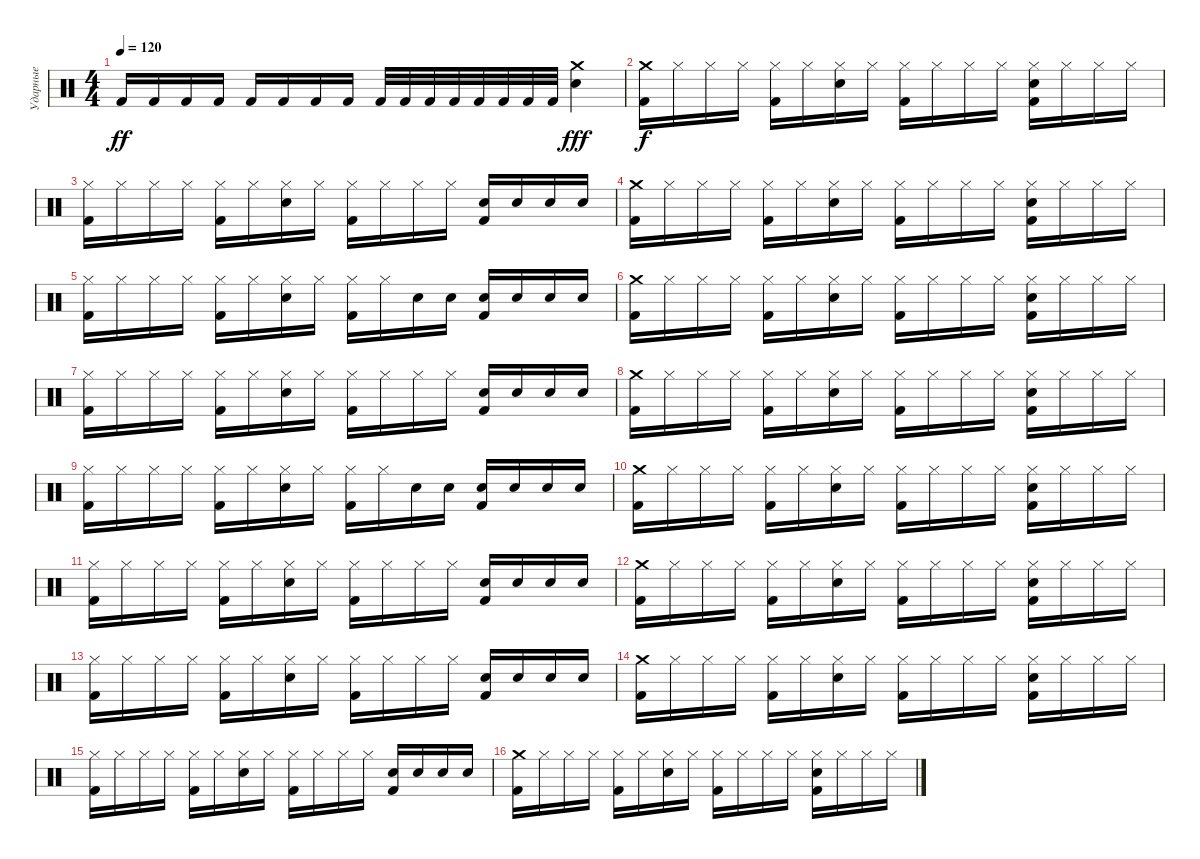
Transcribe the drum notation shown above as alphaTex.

\track ("Ударные" "Ударные") {instrument percussion}
\staff {score}
\articulation defaults
\ts (4 4)
\tempo 120
\clef neutral
\ks c "Kick (hit) 2".16{dy ff} "Kick (hit) 2".16 "Kick (hit) 2".16 "Kick (hit) 2".16 "Kick (hit) 2".16 "Kick (hit) 2".16 "Kick (hit) 2".16 "Kick (hit) 2".16 "Kick (hit) 2".32 "Kick (hit) 2".32 "Kick (hit) 2".32 "Kick (hit) 2".32 "Kick (hit) 2".32 "Kick (hit) 2".32 "Kick (hit) 2".32 "Kick (hit) 2".32
("Crash medium (hit)" "Electric Snare (hit)").4{dy fff} |
("Crash medium (hit)" "Kick (hit) 2").16{dy f} "Hi-Hat (closed)".16 "Hi-Hat (closed)".16 "Hi-Hat (closed)".16 ("Hi-Hat (closed)" "Kick (hit) 2").16 "Hi-Hat (closed)".16 ("Hi-Hat (closed)" "Electric Snare (hit)").16 "Hi-Hat (closed)".16 ("Hi-Hat (closed)" "Kick (hit) 2").16 "Hi-Hat (closed)".16 "Hi-Hat (closed)".16 "Hi-Hat (closed)".16 ("Hi-Hat (closed)" "Electric Snare (hit)" "Kick (hit) 2").16 "Hi-Hat (closed)".16 "Hi-Hat (closed)".16 "Hi-Hat (closed)".16 |
("Hi-Hat (closed)" "Kick (hit) 2").16 "Hi-Hat (closed)".16 "Hi-Hat (closed)".16 "Hi-Hat (closed)".16 ("Hi-Hat (closed)" "Kick (hit) 2").16 "Hi-Hat (closed)".16 ("Hi-Hat (closed)" "Electric Snare (hit)").16 "Hi-Hat (closed)".16 ("Hi-Hat (closed)" "Kick (hit) 2").16 "Hi-Hat (closed)".16 "Hi-Hat (closed)".16 "Hi-Hat (closed)".16 ("Electric Snare (hit)" "Kick (hit) 2").16 "Electric Snare (hit)".16 "Electric Snare (hit)".16 "Electric Snare (hit)".16 |
("Crash medium (hit)" "Kick (hit) 2").16 "Hi-Hat (closed)".16 "Hi-Hat (closed)".16 "Hi-Hat (closed)".16 ("Hi-Hat (closed)" "Kick (hit) 2").16 "Hi-Hat (closed)".16 ("Hi-Hat (closed)" "Electric Snare (hit)").16 "Hi-Hat (closed)".16 ("Hi-Hat (closed)" "Kick (hit) 2").16 "Hi-Hat (closed)".16 "Hi-Hat (closed)".16 "Hi-Hat (closed)".16 ("Hi-Hat (closed)" "Electric Snare (hit)" "Kick (hit) 2").16 "Hi-Hat (closed)".16 "Hi-Hat (closed)".16 "Hi-Hat (closed)".16 |
("Hi-Hat (closed)" "Kick (hit) 2").16 "Hi-Hat (closed)".16 "Hi-Hat (closed)".16 "Hi-Hat (closed)".16 ("Hi-Hat (closed)" "Kick (hit) 2").16 "Hi-Hat (closed)".16 ("Hi-Hat (closed)" "Electric Snare (hit)").16 "Hi-Hat (closed)".16 ("Hi-Hat (closed)" "Kick (hit) 2").16 "Hi-Hat (closed)".16 "Electric Snare (hit)".16 "Electric Snare (hit)".16 ("Electric Snare (hit)" "Kick (hit) 2").16 "Electric Snare (hit)".16 "Electric Snare (hit)".16 "Electric Snare (hit)".16 |
("Crash medium (hit)" "Kick (hit) 2").16 "Hi-Hat (closed)".16 "Hi-Hat (closed)".16 "Hi-Hat (closed)".16 ("Hi-Hat (closed)" "Kick (hit) 2").16 "Hi-Hat (closed)".16 ("Hi-Hat (closed)" "Electric Snare (hit)").16 "Hi-Hat (closed)".16 ("Hi-Hat (closed)" "Kick (hit) 2").16 "Hi-Hat (closed)".16 "Hi-Hat (closed)".16 "Hi-Hat (closed)".16 ("Hi-Hat (closed)" "Electric Snare (hit)" "Kick (hit) 2").16 "Hi-Hat (closed)".16 "Hi-Hat (closed)".16 "Hi-Hat (closed)".16 |
("Hi-Hat (closed)" "Kick (hit) 2").16 "Hi-Hat (closed)".16 "Hi-Hat (closed)".16 "Hi-Hat (closed)".16 ("Hi-Hat (closed)" "Kick (hit) 2").16 "Hi-Hat (closed)".16 ("Hi-Hat (closed)" "Electric Snare (hit)").16 "Hi-Hat (closed)".16 ("Hi-Hat (closed)" "Kick (hit) 2").16 "Hi-Hat (closed)".16 "Hi-Hat (closed)".16 "Hi-Hat (closed)".16 ("Electric Snare (hit)" "Kick (hit) 2").16 "Electric Snare (hit)".16 "Electric Snare (hit)".16 "Electric Snare (hit)".16 |
("Crash medium (hit)" "Kick (hit) 2").16 "Hi-Hat (closed)".16 "Hi-Hat (closed)".16 "Hi-Hat (closed)".16 ("Hi-Hat (closed)" "Kick (hit) 2").16 "Hi-Hat (closed)".16 ("Hi-Hat (closed)" "Electric Snare (hit)").16 "Hi-Hat (closed)".16 ("Hi-Hat (closed)" "Kick (hit) 2").16 "Hi-Hat (closed)".16 "Hi-Hat (closed)".16 "Hi-Hat (closed)".16 ("Hi-Hat (closed)" "Electric Snare (hit)" "Kick (hit) 2").16 "Hi-Hat (closed)".16 "Hi-Hat (closed)".16 "Hi-Hat (closed)".16 |
("Hi-Hat (closed)" "Kick (hit) 2").16 "Hi-Hat (closed)".16 "Hi-Hat (closed)".16 "Hi-Hat (closed)".16 ("Hi-Hat (closed)" "Kick (hit) 2").16 "Hi-Hat (closed)".16 ("Hi-Hat (closed)" "Electric Snare (hit)").16 "Hi-Hat (closed)".16 ("Hi-Hat (closed)" "Kick (hit) 2").16 "Hi-Hat (closed)".16 "Electric Snare (hit)".16 "Electric Snare (hit)".16 ("Electric Snare (hit)" "Kick (hit) 2").16 "Electric Snare (hit)".16 "Electric Snare (hit)".16 "Electric Snare (hit)".16 |
("Crash medium (hit)" "Kick (hit) 2").16 "Hi-Hat (closed)".16 "Hi-Hat (closed)".16 "Hi-Hat (closed)".16 ("Hi-Hat (closed)" "Kick (hit) 2").16 "Hi-Hat (closed)".16 ("Hi-Hat (closed)" "Electric Snare (hit)").16 "Hi-Hat (closed)".16 ("Hi-Hat (closed)" "Kick (hit) 2").16 "Hi-Hat (closed)".16 "Hi-Hat (closed)".16 "Hi-Hat (closed)".16 ("Hi-Hat (closed)" "Electric Snare (hit)" "Kick (hit) 2").16 "Hi-Hat (closed)".16 "Hi-Hat (closed)".16 "Hi-Hat (closed)".16 |
("Hi-Hat (closed)" "Kick (hit) 2").16 "Hi-Hat (closed)".16 "Hi-Hat (closed)".16 "Hi-Hat (closed)".16 ("Hi-Hat (closed)" "Kick (hit) 2").16 "Hi-Hat (closed)".16 ("Hi-Hat (closed)" "Electric Snare (hit)").16 "Hi-Hat (closed)".16 ("Hi-Hat (closed)" "Kick (hit) 2").16 "Hi-Hat (closed)".16 "Hi-Hat (closed)".16 "Hi-Hat (closed)".16 ("Electric Snare (hit)" "Kick (hit) 2").16 "Electric Snare (hit)".16 "Electric Snare (hit)".16 "Electric Snare (hit)".16 |
("Crash medium (hit)" "Kick (hit) 2").16 "Hi-Hat (closed)".16 "Hi-Hat (closed)".16 "Hi-Hat (closed)".16 ("Hi-Hat (closed)" "Kick (hit) 2").16 "Hi-Hat (closed)".16 ("Hi-Hat (closed)" "Electric Snare (hit)").16 "Hi-Hat (closed)".16 ("Hi-Hat (closed)" "Kick (hit) 2").16 "Hi-Hat (closed)".16 "Hi-Hat (closed)".16 "Hi-Hat (closed)".16 ("Hi-Hat (closed)" "Electric Snare (hit)" "Kick (hit) 2").16 "Hi-Hat (closed)".16 "Hi-Hat (closed)".16 "Hi-Hat (closed)".16 |
("Hi-Hat (closed)" "Kick (hit) 2").16 "Hi-Hat (closed)".16 "Hi-Hat (closed)".16 "Hi-Hat (closed)".16 ("Hi-Hat (closed)" "Kick (hit) 2").16 "Hi-Hat (closed)".16 ("Hi-Hat (closed)" "Electric Snare (hit)").16 "Hi-Hat (closed)".16 ("Hi-Hat (closed)" "Kick (hit) 2").16 "Hi-Hat (closed)".16 "Hi-Hat (closed)".16 "Hi-Hat (closed)".16 ("Electric Snare (hit)" "Kick (hit) 2").16 "Electric Snare (hit)".16 "Electric Snare (hit)".16 "Electric Snare (hit)".16 |
("Crash medium (hit)" "Kick (hit) 2").16 "Hi-Hat (closed)".16 "Hi-Hat (closed)".16 "Hi-Hat (closed)".16 ("Hi-Hat (closed)" "Kick (hit) 2").16 "Hi-Hat (closed)".16 ("Hi-Hat (closed)" "Electric Snare (hit)").16 "Hi-Hat (closed)".16 ("Hi-Hat (closed)" "Kick (hit) 2").16 "Hi-Hat (closed)".16 "Hi-Hat (closed)".16 "Hi-Hat (closed)".16 ("Hi-Hat (closed)" "Electric Snare (hit)" "Kick (hit) 2").16 "Hi-Hat (closed)".16 "Hi-Hat (closed)".16 "Hi-Hat (closed)".16 |
("Hi-Hat (closed)" "Kick (hit) 2").16 "Hi-Hat (closed)".16 "Hi-Hat (closed)".16 "Hi-Hat (closed)".16 ("Hi-Hat (closed)" "Kick (hit) 2").16 "Hi-Hat (closed)".16 ("Hi-Hat (closed)" "Electric Snare (hit)").16 "Hi-Hat (closed)".16 ("Hi-Hat (closed)" "Kick (hit) 2").16 "Hi-Hat (closed)".16 "Hi-Hat (closed)".16 "Hi-Hat (closed)".16 ("Electric Snare (hit)" "Kick (hit) 2").16 "Electric Snare (hit)".16 "Electric Snare (hit)".16 "Electric Snare (hit)".16 |
("Crash medium (hit)" "Kick (hit) 2").16 "Hi-Hat (closed)".16 "Hi-Hat (closed)".16 "Hi-Hat (closed)".16 ("Hi-Hat (closed)" "Kick (hit) 2").16 "Hi-Hat (closed)".16 ("Hi-Hat (closed)" "Electric Snare (hit)").16 "Hi-Hat (closed)".16 ("Hi-Hat (closed)" "Kick (hit) 2").16 "Hi-Hat (closed)".16 "Hi-Hat (closed)".16 "Hi-Hat (closed)".16 ("Hi-Hat (closed)" "Electric Snare (hit)" "Kick (hit) 2").16 "Hi-Hat (closed)".16 "Hi-Hat (closed)".16 "Hi-Hat (closed)".16
